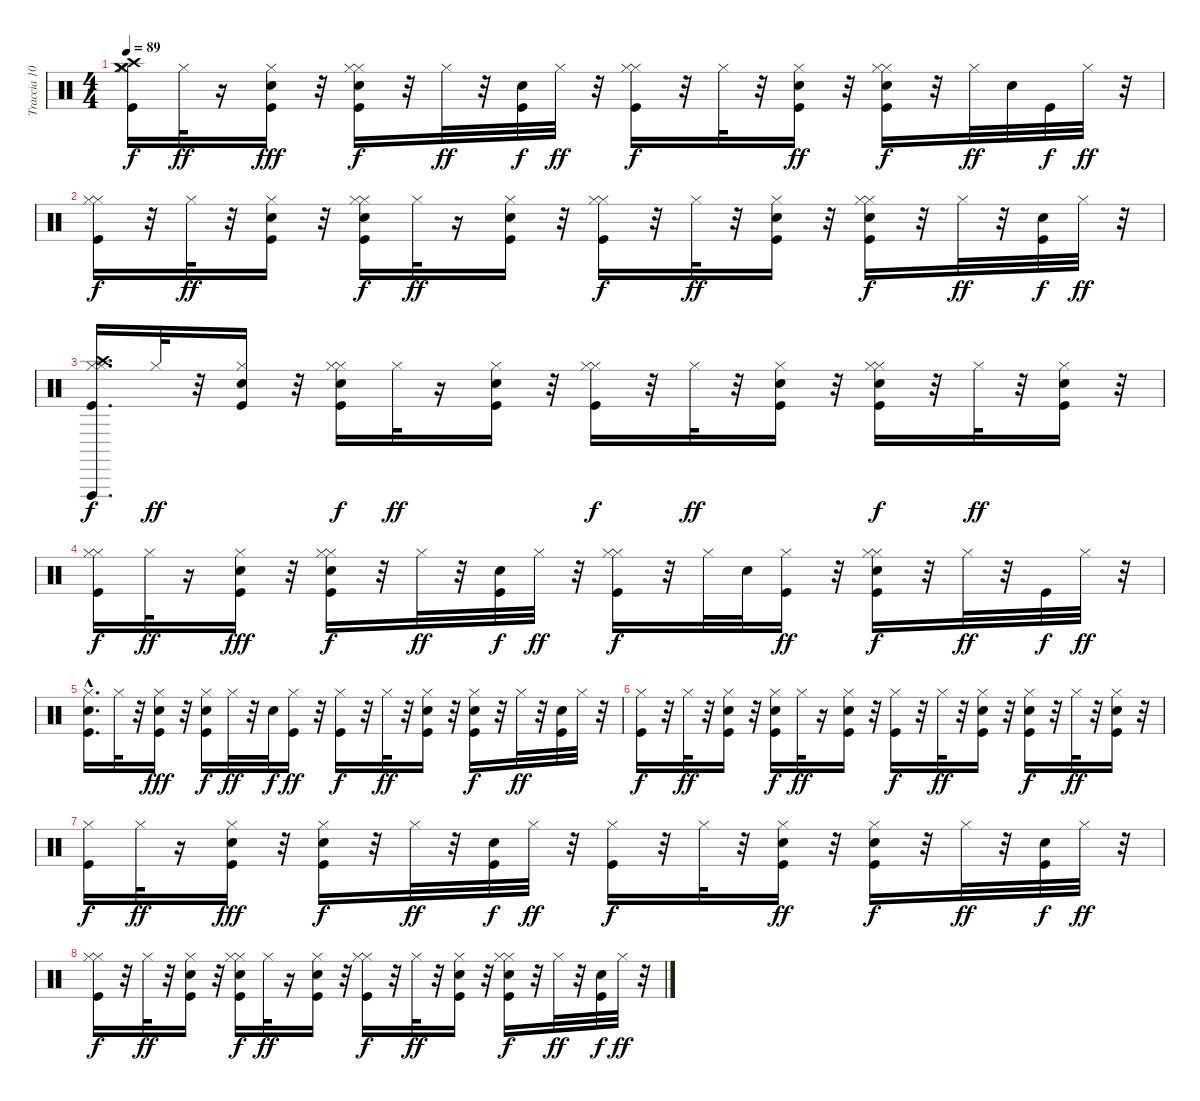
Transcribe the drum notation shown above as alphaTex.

\track ("Traccia 10" "Traccia 10") {instrument percussion}
\staff {score}
\articulation defaults
\ts (4 4)
\tempo 89
\clef neutral
\ks c
("Kick (hit)" "Crash high (hit)" "Crash medium (hit)" "Hi-Hat (closed)" "Hi-Hat (closed)").16{dy f} "Hi-Hat (closed)".32{dy ff} r.16 ("Snare (hit)" "Kick (hit)" "Hi-Hat (closed)").16{dy fff} r.32 ("Kick (hit)" "Electric Snare (hit)" "Hi-Hat (closed)" "Hi-Hat (closed)").16{dy f} r.32 "Hi-Hat (closed)".32{dy ff} r.32 ("Kick (hit)" "Snare (hit)").32{dy f} "Hi-Hat (closed)".32{dy ff} r.32 ("Kick (hit)" "Hi-Hat (closed)" "Hi-Hat (closed)").16{dy f} r.32 "Hi-Hat (closed)".32 r.32 ("Snare (hit)" "Kick (hit)" "Hi-Hat (closed)").16{dy ff} r.32 ("Kick (hit)" "Electric Snare (hit)" "Hi-Hat (closed)" "Hi-Hat (closed)").16{dy f} r.32 "Hi-Hat (closed)".32{dy ff} "Snare (hit)".32 "Kick (hit)".32{dy f} "Hi-Hat (closed)".32{dy ff} r.32 |
("Kick (hit)" "Hi-Hat (closed)" "Hi-Hat (closed)").16{dy f} r.32 "Hi-Hat (closed)".32{dy ff} r.32 ("Snare (hit)" "Kick (hit)" "Hi-Hat (closed)").16 r.32 ("Kick (hit)" "Electric Snare (hit)" "Hi-Hat (closed)" "Hi-Hat (closed)").16{dy f} "Hi-Hat (closed)".32{dy ff} r.16 ("Kick (hit)" "Snare (hit)" "Hi-Hat (closed)").16 r.32 ("Kick (hit)" "Hi-Hat (closed)" "Hi-Hat (closed)").16{dy f} r.32 "Hi-Hat (closed)".32{dy ff} r.32 ("Snare (hit)" "Kick (hit)" "Hi-Hat (closed)").16 r.32 ("Kick (hit)" "Electric Snare (hit)" "Hi-Hat (closed)" "Hi-Hat (closed)").16{dy f} r.32 "Hi-Hat (closed)".32{dy ff} r.32 ("Snare (hit)" "Kick (hit)").32{dy f} "Hi-Hat (closed)".32{dy ff} r.32 |
("Kick (hit)" "Crash high (hit)" "Hi-Hat (closed)" "Hi-Hat (closed)" "Vibraslap (hit)").16{d dy f} "Hi-Hat (closed)".32{dy ff} r.32 ("Snare (hit)" "Kick (hit)" "Hi-Hat (closed)").16 r.32 ("Kick (hit)" "Electric Snare (hit)" "Hi-Hat (closed)" "Hi-Hat (closed)").16{dy f} "Hi-Hat (closed)".32{dy ff} r.16 ("Snare (hit)" "Kick (hit)" "Hi-Hat (closed)").16 r.32 ("Kick (hit)" "Hi-Hat (closed)" "Hi-Hat (closed)").16{dy f} r.32 "Hi-Hat (closed)".32{dy ff} r.32 ("Snare (hit)" "Kick (hit)" "Hi-Hat (closed)").16 r.32 ("Kick (hit)" "Electric Snare (hit)" "Hi-Hat (closed)" "Hi-Hat (closed)").16{dy f} r.32 "Hi-Hat (closed)".32{dy ff} r.32 ("Kick (hit)" "Snare (hit)" "Hi-Hat (closed)").16 r.32 |
("Kick (hit)" "Hi-Hat (closed)" "Hi-Hat (closed)").16{dy f} "Hi-Hat (closed)".32{dy ff} r.16 ("Kick (hit)" "Snare (hit)" "Hi-Hat (closed)").16{dy fff} r.32 ("Kick (hit)" "Electric Snare (hit)" "Hi-Hat (closed)" "Hi-Hat (closed)").16{dy f} r.32 "Hi-Hat (closed)".32{dy ff} r.32 ("Kick (hit)" "Snare (hit)").32{dy f} "Hi-Hat (closed)".32{dy ff} r.32 ("Kick (hit)" "Hi-Hat (closed)" "Hi-Hat (closed)").16{dy f} r.32 "Hi-Hat (closed)".32 "Snare (hit)".32 ("Kick (hit)" "Hi-Hat (closed)").16{dy ff} r.32 ("Kick (hit)" "Electric Snare (hit)" "Hi-Hat (closed)" "Hi-Hat (closed)").16{dy f} r.32 "Hi-Hat (closed)".32{dy ff} r.32 "Kick (hit)".32{dy f} "Hi-Hat (closed)".32{dy ff} r.32 |
("Kick (hit)" "Hi-Hat (closed)" "Snare (hit)"{hac}).16{d} "Hi-Hat (closed)".32 r.32 ("Kick (hit)" "Hi-Hat (closed)" "Snare (hit)").16{dy fff} r.32 ("Kick (hit)" "Electric Snare (hit)" "Hi-Hat (closed)").16{dy f} "Hi-Hat (closed)".32{dy ff} r.32 "Snare (hit)".32{dy f} ("Kick (hit)" "Hi-Hat (closed)").16{dy ff} r.32 ("Kick (hit)" "Hi-Hat (closed)").16{dy f} r.32 "Hi-Hat (closed)".32{dy ff} r.32 ("Kick (hit)" "Snare (hit)" "Hi-Hat (closed)").16 r.32 ("Kick (hit)" "Electric Snare (hit)" "Hi-Hat (closed)").16{dy f} r.32 "Hi-Hat (closed)".32{dy ff} r.32 ("Kick (hit)" "Snare (hit)").32 "Hi-Hat (closed)".32 r.32 |
("Kick (hit)" "Hi-Hat (closed)").16{dy f} r.32 "Hi-Hat (closed)".32{dy ff} r.32 ("Kick (hit)" "Snare (hit)" "Hi-Hat (closed)").16 r.32 ("Kick (hit)" "Electric Snare (hit)" "Hi-Hat (closed)").16{dy f} "Hi-Hat (closed)".32{dy ff} r.16 ("Kick (hit)" "Hi-Hat (closed)" "Snare (hit)").16 r.32 ("Kick (hit)" "Hi-Hat (closed)").16{dy f} r.32 "Hi-Hat (closed)".32{dy ff} r.32 ("Snare (hit)" "Kick (hit)" "Hi-Hat (closed)").16 r.32 ("Kick (hit)" "Electric Snare (hit)" "Hi-Hat (closed)").16{dy f} r.32 "Hi-Hat (closed)".32{dy ff} r.32 ("Kick (hit)" "Snare (hit)" "Hi-Hat (closed)").16 r.32 |
("Kick (hit)" "Hi-Hat (closed)").16{dy f} "Hi-Hat (closed)".32{dy ff} r.16 ("Kick (hit)" "Snare (hit)" "Hi-Hat (closed)").16{dy fff} r.32 ("Kick (hit)" "Electric Snare (hit)" "Hi-Hat (closed)").16{dy f} r.32 "Hi-Hat (closed)".32{dy ff} r.32 ("Kick (hit)" "Snare (hit)").32{dy f} "Hi-Hat (closed)".32{dy ff} r.32 ("Kick (hit)" "Hi-Hat (closed)").16{dy f} r.32 "Hi-Hat (closed)".32 r.32 ("Kick (hit)" "Snare (hit)" "Hi-Hat (closed)").16{dy ff} r.32 ("Kick (hit)" "Electric Snare (hit)" "Hi-Hat (closed)").16{dy f} r.32 "Hi-Hat (closed)".32{dy ff} r.32 ("Kick (hit)" "Snare (hit)").32{dy f} "Hi-Hat (closed)".32{dy ff} r.32 |
("Kick (hit)" "Hi-Hat (closed)" "Hi-Hat (closed)").16{dy f} r.32 "Hi-Hat (closed)".32{dy ff} r.32 ("Snare (hit)" "Kick (hit)" "Hi-Hat (closed)").16 r.32 ("Kick (hit)" "Electric Snare (hit)" "Hi-Hat (closed)" "Hi-Hat (closed)").16{dy f} "Hi-Hat (closed)".32{dy ff} r.16 ("Snare (hit)" "Kick (hit)" "Hi-Hat (closed)").16 r.32 ("Kick (hit)" "Hi-Hat (closed)" "Hi-Hat (closed)").16{dy f} r.32 "Hi-Hat (closed)".32{dy ff} r.32 ("Snare (hit)" "Kick (hit)" "Hi-Hat (closed)").16 r.32 ("Kick (hit)" "Electric Snare (hit)" "Hi-Hat (closed)" "Hi-Hat (closed)").16{dy f} r.32 "Hi-Hat (closed)".32{dy ff} r.32 ("Kick (hit)" "Snare (hit)").32{dy f} "Hi-Hat (closed)".32{dy ff} r.32
